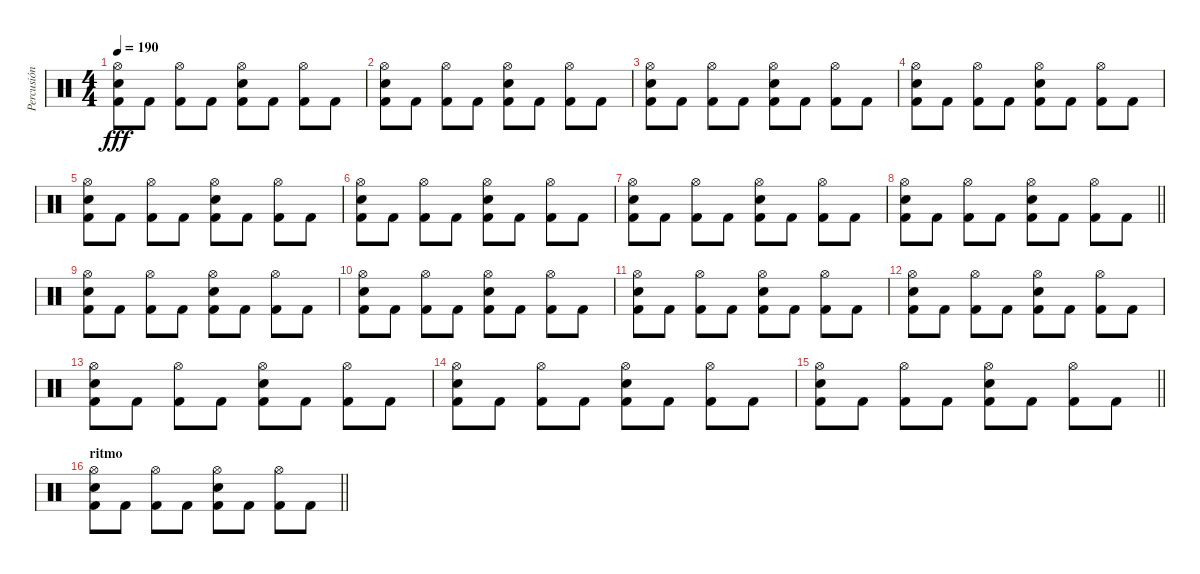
\track ("Percusión" "Percusión") {instrument percussion}
\staff {score}
\articulation defaults
\ts (4 4)
\tempo 190
\clef neutral
\ks c
("Hi-Hat (open)" "Electric Snare (hit)" "Kick (hit) 2").8{dy fff} "Kick (hit) 2".8 ("Hi-Hat (open)" "Kick (hit) 2").8 "Kick (hit) 2".8 ("Hi-Hat (open)" "Electric Snare (hit)" "Kick (hit) 2").8 "Kick (hit) 2".8 ("Hi-Hat (open)" "Kick (hit) 2").8 "Kick (hit) 2".8 |
("Hi-Hat (open)" "Electric Snare (hit)" "Kick (hit) 2").8 "Kick (hit) 2".8 ("Hi-Hat (open)" "Kick (hit) 2").8 "Kick (hit) 2".8 ("Hi-Hat (open)" "Electric Snare (hit)" "Kick (hit) 2").8 "Kick (hit) 2".8 ("Hi-Hat (open)" "Kick (hit) 2").8 "Kick (hit) 2".8 |
("Hi-Hat (open)" "Electric Snare (hit)" "Kick (hit) 2").8 "Kick (hit) 2".8 ("Hi-Hat (open)" "Kick (hit) 2").8 "Kick (hit) 2".8 ("Hi-Hat (open)" "Electric Snare (hit)" "Kick (hit) 2").8 "Kick (hit) 2".8 ("Hi-Hat (open)" "Kick (hit) 2").8 "Kick (hit) 2".8 |
("Hi-Hat (open)" "Electric Snare (hit)" "Kick (hit) 2").8 "Kick (hit) 2".8 ("Hi-Hat (open)" "Kick (hit) 2").8 "Kick (hit) 2".8 ("Hi-Hat (open)" "Electric Snare (hit)" "Kick (hit) 2").8 "Kick (hit) 2".8 ("Hi-Hat (open)" "Kick (hit) 2").8 "Kick (hit) 2".8 |
("Hi-Hat (open)" "Electric Snare (hit)" "Kick (hit) 2").8 "Kick (hit) 2".8 ("Hi-Hat (open)" "Kick (hit) 2").8 "Kick (hit) 2".8 ("Hi-Hat (open)" "Electric Snare (hit)" "Kick (hit) 2").8 "Kick (hit) 2".8 ("Hi-Hat (open)" "Kick (hit) 2").8 "Kick (hit) 2".8 |
("Hi-Hat (open)" "Electric Snare (hit)" "Kick (hit) 2").8 "Kick (hit) 2".8 ("Hi-Hat (open)" "Kick (hit) 2").8 "Kick (hit) 2".8 ("Hi-Hat (open)" "Electric Snare (hit)" "Kick (hit) 2").8 "Kick (hit) 2".8 ("Hi-Hat (open)" "Kick (hit) 2").8 "Kick (hit) 2".8 |
("Hi-Hat (open)" "Electric Snare (hit)" "Kick (hit) 2").8 "Kick (hit) 2".8 ("Hi-Hat (open)" "Kick (hit) 2").8 "Kick (hit) 2".8 ("Hi-Hat (open)" "Electric Snare (hit)" "Kick (hit) 2").8 "Kick (hit) 2".8 ("Hi-Hat (open)" "Kick (hit) 2").8 "Kick (hit) 2".8 |
\barLineRight lightlight
("Hi-Hat (open)" "Electric Snare (hit)" "Kick (hit) 2").8 "Kick (hit) 2".8 ("Hi-Hat (open)" "Kick (hit) 2").8 "Kick (hit) 2".8 ("Hi-Hat (open)" "Electric Snare (hit)" "Kick (hit) 2").8 "Kick (hit) 2".8 ("Hi-Hat (open)" "Kick (hit) 2").8 "Kick (hit) 2".8 |
("Hi-Hat (open)" "Electric Snare (hit)" "Kick (hit) 2").8 "Kick (hit) 2".8 ("Hi-Hat (open)" "Kick (hit) 2").8 "Kick (hit) 2".8 ("Hi-Hat (open)" "Electric Snare (hit)" "Kick (hit) 2").8 "Kick (hit) 2".8 ("Hi-Hat (open)" "Kick (hit) 2").8 "Kick (hit) 2".8 |
("Hi-Hat (open)" "Electric Snare (hit)" "Kick (hit) 2").8 "Kick (hit) 2".8 ("Hi-Hat (open)" "Kick (hit) 2").8 "Kick (hit) 2".8 ("Hi-Hat (open)" "Electric Snare (hit)" "Kick (hit) 2").8 "Kick (hit) 2".8 ("Hi-Hat (open)" "Kick (hit) 2").8 "Kick (hit) 2".8 |
("Hi-Hat (open)" "Electric Snare (hit)" "Kick (hit) 2").8 "Kick (hit) 2".8 ("Hi-Hat (open)" "Kick (hit) 2").8 "Kick (hit) 2".8 ("Hi-Hat (open)" "Electric Snare (hit)" "Kick (hit) 2").8 "Kick (hit) 2".8 ("Hi-Hat (open)" "Kick (hit) 2").8 "Kick (hit) 2".8 |
("Hi-Hat (open)" "Electric Snare (hit)" "Kick (hit) 2").8 "Kick (hit) 2".8 ("Hi-Hat (open)" "Kick (hit) 2").8 "Kick (hit) 2".8 ("Hi-Hat (open)" "Electric Snare (hit)" "Kick (hit) 2").8 "Kick (hit) 2".8 ("Hi-Hat (open)" "Kick (hit) 2").8 "Kick (hit) 2".8 |
("Hi-Hat (open)" "Electric Snare (hit)" "Kick (hit) 2").8 "Kick (hit) 2".8 ("Hi-Hat (open)" "Kick (hit) 2").8 "Kick (hit) 2".8 ("Hi-Hat (open)" "Electric Snare (hit)" "Kick (hit) 2").8 "Kick (hit) 2".8 ("Hi-Hat (open)" "Kick (hit) 2").8 "Kick (hit) 2".8 |
("Hi-Hat (open)" "Electric Snare (hit)" "Kick (hit) 2").8 "Kick (hit) 2".8 ("Hi-Hat (open)" "Kick (hit) 2").8 "Kick (hit) 2".8 ("Hi-Hat (open)" "Electric Snare (hit)" "Kick (hit) 2").8 "Kick (hit) 2".8 ("Hi-Hat (open)" "Kick (hit) 2").8 "Kick (hit) 2".8 |
\barLineRight lightlight
("Hi-Hat (open)" "Electric Snare (hit)" "Kick (hit) 2").8 "Kick (hit) 2".8 ("Hi-Hat (open)" "Kick (hit) 2").8 "Kick (hit) 2".8 ("Hi-Hat (open)" "Electric Snare (hit)" "Kick (hit) 2").8 "Kick (hit) 2".8 ("Hi-Hat (open)" "Kick (hit) 2").8 "Kick (hit) 2".8 |
\section ("" "ritmo")
\barLineRight lightlight
("Hi-Hat (open)" "Electric Snare (hit)" "Kick (hit) 2").8 "Kick (hit) 2".8 ("Hi-Hat (open)" "Kick (hit) 2").8 "Kick (hit) 2".8 ("Hi-Hat (open)" "Electric Snare (hit)" "Kick (hit) 2").8 "Kick (hit) 2".8 ("Hi-Hat (open)" "Kick (hit) 2").8 "Kick (hit) 2".8
